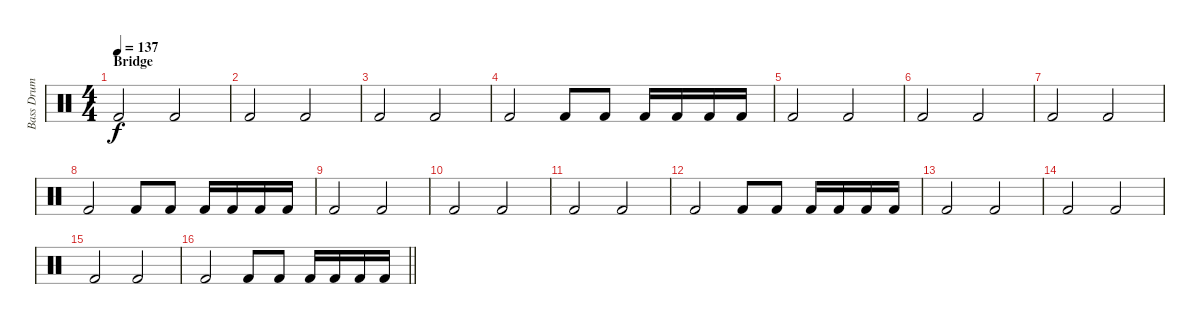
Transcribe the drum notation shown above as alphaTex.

\track ("Bass Drum" "Bass Drum") {instrument percussion}
\staff {score}
\articulation defaults
\ts (4 4)
\section ("" "Bridge")
\tempo 137
\clef neutral
\ks c "Kick (hit) 2".2{dy f} "Kick (hit) 2".2
|
"Kick (hit) 2".2 "Kick (hit) 2".2 |
"Kick (hit) 2".2 "Kick (hit) 2".2 |
"Kick (hit) 2".2 "Kick (hit) 2".8 "Kick (hit) 2".8 "Kick (hit) 2".16 "Kick (hit) 2".16 "Kick (hit) 2".16 "Kick (hit) 2".16 |
"Kick (hit) 2".2 "Kick (hit) 2".2 |
"Kick (hit) 2".2 "Kick (hit) 2".2 |
"Kick (hit) 2".2 "Kick (hit) 2".2 |
"Kick (hit) 2".2 "Kick (hit) 2".8 "Kick (hit) 2".8 "Kick (hit) 2".16 "Kick (hit) 2".16 "Kick (hit) 2".16 "Kick (hit) 2".16 |
"Kick (hit) 2".2 "Kick (hit) 2".2 |
"Kick (hit) 2".2 "Kick (hit) 2".2 |
"Kick (hit) 2".2 "Kick (hit) 2".2 |
"Kick (hit) 2".2 "Kick (hit) 2".8 "Kick (hit) 2".8 "Kick (hit) 2".16 "Kick (hit) 2".16 "Kick (hit) 2".16 "Kick (hit) 2".16 |
"Kick (hit) 2".2 "Kick (hit) 2".2 |
"Kick (hit) 2".2 "Kick (hit) 2".2 |
"Kick (hit) 2".2 "Kick (hit) 2".2 |
\barLineRight lightlight "Kick (hit) 2".2 "Kick (hit) 2".8 "Kick (hit) 2".8 "Kick (hit) 2".16 "Kick (hit) 2".16 "Kick (hit) 2".16 "Kick (hit) 2".16
